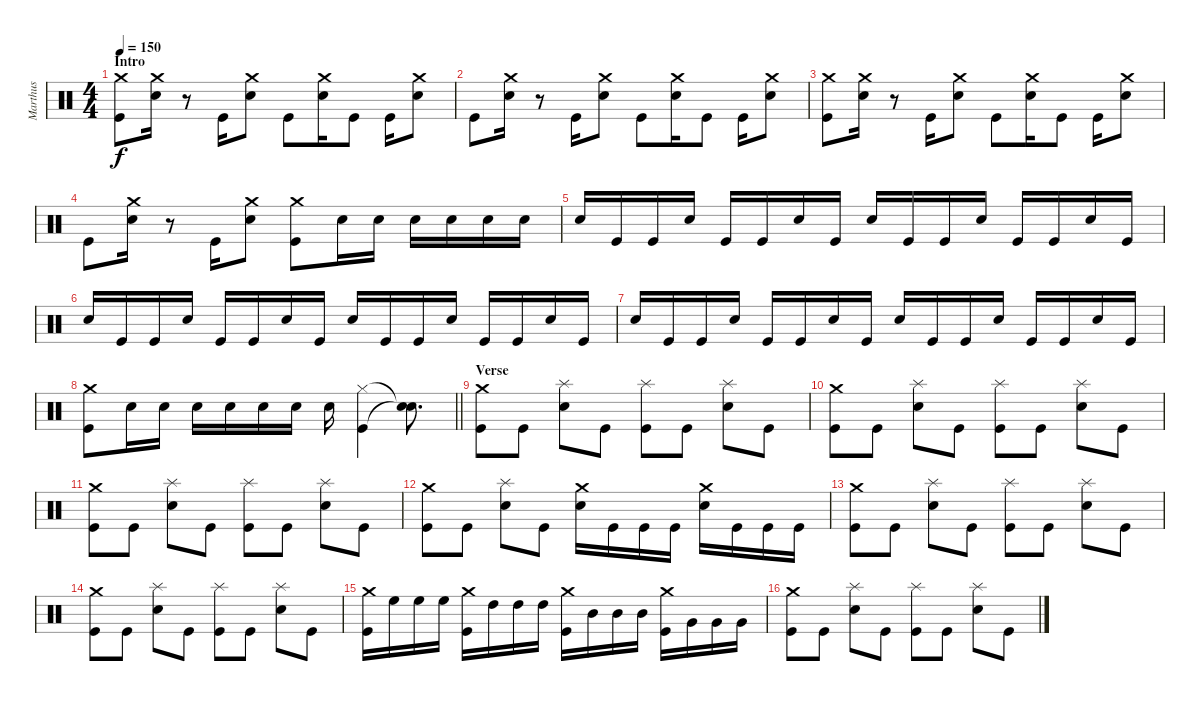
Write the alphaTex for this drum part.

\track ("Marthus" "Marthus") {instrument percussion}
\staff {score}
\articulation defaults
\ts (4 4)
\section ("" "Intro")
\tempo 150
\clef neutral
\ks c
("Crash medium (hit)" "Kick (hit)").8{dy f} ("Crash medium (hit)" "Snare (hit) 2").16 r.8 "Kick (hit)".16 ("Crash medium (hit)" "Snare (hit) 2").8 "Kick (hit)".8 ("Crash medium (hit)" "Snare (hit) 2").16 "Kick (hit)".8 "Kick (hit)".16 ("Crash medium (hit)" "Snare (hit) 2").8 |
"Kick (hit)".8 ("Crash medium (hit)" "Snare (hit) 2").16 r.8 "Kick (hit)".16 ("Crash medium (hit)" "Snare (hit) 2").8 "Kick (hit)".8 ("Crash medium (hit)" "Snare (hit) 2").16 "Kick (hit)".8 "Kick (hit)".16 ("Crash medium (hit)" "Snare (hit) 2").8 |
("Crash medium (hit)" "Kick (hit)").8 ("Crash medium (hit)" "Snare (hit) 2").16 r.8 "Kick (hit)".16 ("Crash medium (hit)" "Snare (hit) 2").8 "Kick (hit)".8 ("Crash medium (hit)" "Snare (hit) 2").16 "Kick (hit)".8 "Kick (hit)".16 ("Crash medium (hit)" "Snare (hit) 2").8 |
"Kick (hit)".8 ("Crash medium (hit)" "Snare (hit) 2").16 r.8 "Kick (hit)".16 ("Crash medium (hit)" "Snare (hit) 2").8 ("Crash medium (hit)" "Kick (hit)").8 "Snare (hit) 2".16 "Snare (hit) 2".16 "Snare (hit) 2".16 "Snare (hit) 2".16 "Snare (hit) 2".16 "Snare (hit) 2".16 |
"Snare (hit) 2".16 "Kick (hit)".16 "Kick (hit)".16 "Snare (hit) 2".16 "Kick (hit)".16 "Kick (hit)".16 "Snare (hit) 2".16 "Kick (hit)".16 "Snare (hit) 2".16 "Kick (hit)".16 "Kick (hit)".16 "Snare (hit) 2".16 "Kick (hit)".16 "Kick (hit)".16 "Snare (hit) 2".16 "Kick (hit)".16 |
"Snare (hit) 2".16 "Kick (hit)".16 "Kick (hit)".16 "Snare (hit) 2".16 "Kick (hit)".16 "Kick (hit)".16 "Snare (hit) 2".16 "Kick (hit)".16 "Snare (hit) 2".16 "Kick (hit)".16 "Kick (hit)".16 "Snare (hit) 2".16 "Kick (hit)".16 "Kick (hit)".16 "Snare (hit) 2".16 "Kick (hit)".16 |
"Snare (hit) 2".16 "Kick (hit)".16 "Kick (hit)".16 "Snare (hit) 2".16 "Kick (hit)".16 "Kick (hit)".16 "Snare (hit) 2".16 "Kick (hit)".16 "Snare (hit) 2".16 "Kick (hit)".16 "Kick (hit)".16 "Snare (hit) 2".16 "Kick (hit)".16 "Kick (hit)".16 "Snare (hit) 2".16 "Kick (hit)".16 |
\barLineRight lightlight
("Crash medium (hit)" "Kick (hit)").8 "Snare (hit) 2".16 "Snare (hit) 2".16 "Snare (hit) 2".16 "Snare (hit) 2".16 "Snare (hit) 2".16 "Snare (hit) 2".16 "Snare (hit) 2".16 ("Kick (hit)" "Hi-Hat (closed)").4 ("Snare (hit)"{t} "Snare (hit)"{t}).8{d} |
\section ("" "Verse")
("Crash medium (hit)" "Kick (hit)").8 "Kick (hit)".8 ("Splash (hit)" "Snare (hit) 2").8 "Kick (hit)".8 ("Splash (hit)" "Kick (hit)").8 "Kick (hit)".8 ("Splash (hit)" "Snare (hit) 2").8 "Kick (hit)".8 |
("Crash medium (hit)" "Kick (hit)").8 "Kick (hit)".8 ("Splash (hit)" "Snare (hit) 2").8 "Kick (hit)".8 ("Splash (hit)" "Kick (hit)").8 "Kick (hit)".8 ("Splash (hit)" "Snare (hit) 2").8 "Kick (hit)".8 |
("Crash medium (hit)" "Kick (hit)").8 "Kick (hit)".8 ("Splash (hit)" "Snare (hit) 2").8 "Kick (hit)".8 ("Splash (hit)" "Kick (hit)").8 "Kick (hit)".8 ("Splash (hit)" "Snare (hit) 2").8 "Kick (hit)".8 |
("Crash medium (hit)" "Kick (hit)").8 "Kick (hit)".8 ("Splash (hit)" "Snare (hit) 2").8 "Kick (hit)".8 ("Crash medium (hit)" "Snare (hit) 2").16 "Kick (hit)".16 "Kick (hit)".16 "Kick (hit)".16 ("Crash medium (hit)" "Snare (hit) 2").16 "Kick (hit)".16 "Kick (hit)".16 "Kick (hit)".16 |
("Crash medium (hit)" "Kick (hit)").8 "Kick (hit)".8 ("Splash (hit)" "Snare (hit) 2").8 "Kick (hit)".8 ("Splash (hit)" "Kick (hit)").8 "Kick (hit)".8 ("Splash (hit)" "Snare (hit) 2").8 "Kick (hit)".8 |
("Crash medium (hit)" "Kick (hit)").8 "Kick (hit)".8 ("Splash (hit)" "Snare (hit) 2").8 "Kick (hit)".8 ("Splash (hit)" "Kick (hit)").8 "Kick (hit)".8 ("Splash (hit)" "Snare (hit) 2").8 "Kick (hit)".8 |
("Crash medium (hit)" "Kick (hit)").16 "High Floor Tom (hit)".16 "High Floor Tom (hit)".16 "High Floor Tom (hit)".16 ("Crash medium (hit)" "Kick (hit)").16 "High Tom (hit)".16 "High Tom (hit)".16 "High Tom (hit)".16 ("Crash medium (hit)" "Kick (hit)").16 "Mid Tom (hit)".16 "Mid Tom (hit)".16 "Mid Tom (hit)".16 ("Crash medium (hit)" "Kick (hit)").16 "Very Low Tom (hit)".16 "Very Low Tom (hit)".16 "Very Low Tom (hit)".16 |
("Crash medium (hit)" "Kick (hit)").8 "Kick (hit)".8 ("Splash (hit)" "Snare (hit) 2").8 "Kick (hit)".8 ("Splash (hit)" "Kick (hit)").8 "Kick (hit)".8 ("Splash (hit)" "Snare (hit) 2").8 "Kick (hit)".8
